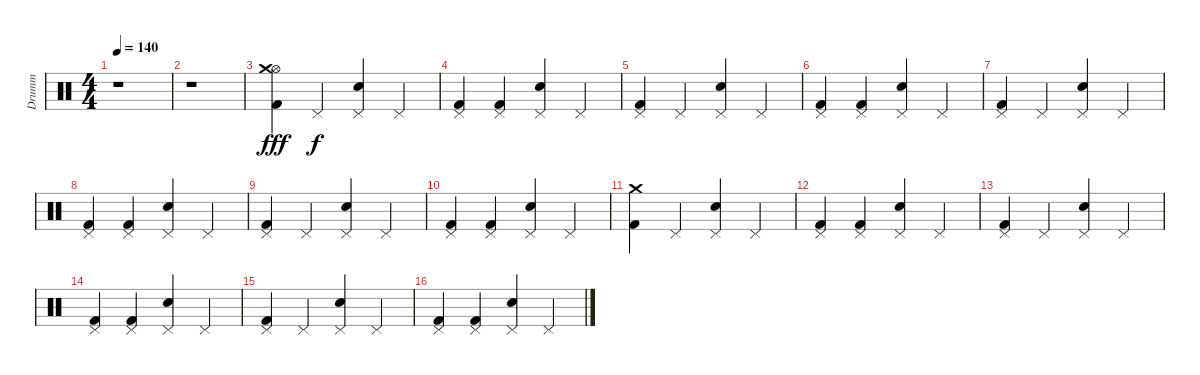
\track ("Drumm" "Drumm") {instrument percussion}
\staff {score}
\articulation defaults
\ts (4 4)
\tempo 140
\clef neutral
\ks c
r.1{dy fff} |
r.1 |
("Hi-Hat (open)" "Crash medium (hit)" "Kick (hit) 2").4 "Pedal Hi-Hat (hit)".4{dy f} ("Pedal Hi-Hat (hit)" "Snare (hit) 2").4 "Pedal Hi-Hat (hit)".4 |
("Pedal Hi-Hat (hit)" "Kick (hit) 2").4 ("Pedal Hi-Hat (hit)" "Kick (hit) 2").4 ("Pedal Hi-Hat (hit)" "Snare (hit) 2").4 "Pedal Hi-Hat (hit)".4 |
("Pedal Hi-Hat (hit)" "Kick (hit) 2").4 "Pedal Hi-Hat (hit)".4 ("Pedal Hi-Hat (hit)" "Snare (hit) 2").4 "Pedal Hi-Hat (hit)".4 |
("Pedal Hi-Hat (hit)" "Kick (hit) 2").4 ("Pedal Hi-Hat (hit)" "Kick (hit) 2").4 ("Pedal Hi-Hat (hit)" "Snare (hit) 2").4 "Pedal Hi-Hat (hit)".4 |
("Pedal Hi-Hat (hit)" "Kick (hit) 2").4 "Pedal Hi-Hat (hit)".4 ("Pedal Hi-Hat (hit)" "Snare (hit) 2").4 "Pedal Hi-Hat (hit)".4 |
("Pedal Hi-Hat (hit)" "Kick (hit) 2").4 ("Pedal Hi-Hat (hit)" "Kick (hit) 2").4 ("Pedal Hi-Hat (hit)" "Snare (hit) 2").4 "Pedal Hi-Hat (hit)".4 |
("Pedal Hi-Hat (hit)" "Kick (hit) 2").4 "Pedal Hi-Hat (hit)".4 ("Pedal Hi-Hat (hit)" "Snare (hit) 2").4 "Pedal Hi-Hat (hit)".4 |
("Pedal Hi-Hat (hit)" "Kick (hit) 2").4 ("Pedal Hi-Hat (hit)" "Kick (hit) 2").4 ("Pedal Hi-Hat (hit)" "Snare (hit) 2").4 "Pedal Hi-Hat (hit)".4 |
("Crash medium (hit)" "Kick (hit) 2").4 "Pedal Hi-Hat (hit)".4 ("Pedal Hi-Hat (hit)" "Snare (hit) 2").4 "Pedal Hi-Hat (hit)".4 |
("Pedal Hi-Hat (hit)" "Kick (hit) 2").4 ("Pedal Hi-Hat (hit)" "Kick (hit) 2").4 ("Pedal Hi-Hat (hit)" "Snare (hit) 2").4 "Pedal Hi-Hat (hit)".4 |
("Pedal Hi-Hat (hit)" "Kick (hit) 2").4 "Pedal Hi-Hat (hit)".4 ("Pedal Hi-Hat (hit)" "Snare (hit) 2").4 "Pedal Hi-Hat (hit)".4 |
("Pedal Hi-Hat (hit)" "Kick (hit) 2").4 ("Pedal Hi-Hat (hit)" "Kick (hit) 2").4 ("Pedal Hi-Hat (hit)" "Snare (hit) 2").4 "Pedal Hi-Hat (hit)".4 |
("Pedal Hi-Hat (hit)" "Kick (hit) 2").4 "Pedal Hi-Hat (hit)".4 ("Pedal Hi-Hat (hit)" "Snare (hit) 2").4 "Pedal Hi-Hat (hit)".4 |
("Pedal Hi-Hat (hit)" "Kick (hit) 2").4 ("Pedal Hi-Hat (hit)" "Kick (hit) 2").4 ("Pedal Hi-Hat (hit)" "Snare (hit) 2").4 "Pedal Hi-Hat (hit)".4
